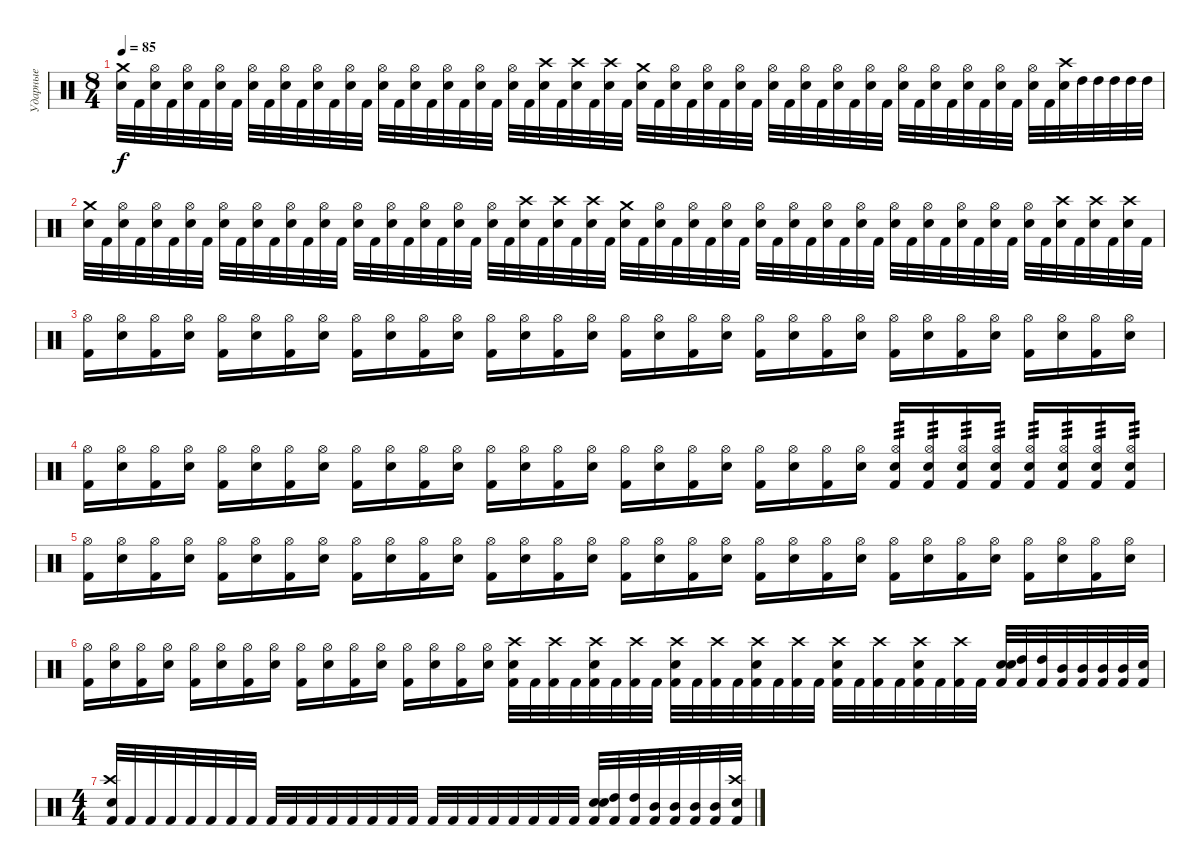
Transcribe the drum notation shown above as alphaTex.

\track ("Ударные" "Ударные") {instrument percussion}
\staff {score}
\articulation defaults
\ts (8 4)
\tempo 85
\clef neutral
\ks c
("Crash medium (hit)" "Electric Snare (hit)").32{dy f} "Kick (hit) 2".32 ("Hi-Hat (open)" "Electric Snare (hit)").32 "Kick (hit) 2".32 ("Hi-Hat (open)" "Electric Snare (hit)").32 "Kick (hit) 2".32 ("Hi-Hat (open)" "Electric Snare (hit)").32 "Kick (hit) 2".32 ("Hi-Hat (open)" "Electric Snare (hit)").32 "Kick (hit) 2".32 ("Hi-Hat (open)" "Electric Snare (hit)").32 "Kick (hit) 2".32 ("Hi-Hat (open)" "Electric Snare (hit)").32 "Kick (hit) 2".32 ("Hi-Hat (open)" "Electric Snare (hit)").32 "Kick (hit) 2".32 ("Hi-Hat (open)" "Electric Snare (hit)").32 "Kick (hit) 2".32 ("Hi-Hat (open)" "Electric Snare (hit)").32 "Kick (hit) 2".32 ("Hi-Hat (open)" "Electric Snare (hit)").32 "Kick (hit) 2".32 ("Hi-Hat (open)" "Electric Snare (hit)").32 "Kick (hit) 2".32 ("Hi-Hat (open)" "Electric Snare (hit)").32 "Kick (hit) 2".32 ("Crash high (hit)" "Electric Snare (hit)").32 "Kick (hit) 2".32 ("Crash high (hit)" "Electric Snare (hit)").32 "Kick (hit) 2".32 ("Crash high (hit)" "Electric Snare (hit)").32 "Kick (hit) 2".32 ("Crash medium (hit)" "Electric Snare (hit)").32 "Kick (hit) 2".32 ("Hi-Hat (open)" "Electric Snare (hit)").32 "Kick (hit) 2".32 ("Hi-Hat (open)" "Electric Snare (hit)").32 "Kick (hit) 2".32 ("Hi-Hat (open)" "Electric Snare (hit)").32 "Kick (hit) 2".32 ("Hi-Hat (open)" "Electric Snare (hit)").32 "Kick (hit) 2".32 ("Hi-Hat (open)" "Electric Snare (hit)").32 "Kick (hit) 2".32 ("Hi-Hat (open)" "Electric Snare (hit)").32 "Kick (hit) 2".32 ("Hi-Hat (open)" "Electric Snare (hit)").32 "Kick (hit) 2".32 ("Hi-Hat (open)" "Electric Snare (hit)").32 "Kick (hit) 2".32 ("Hi-Hat (open)" "Electric Snare (hit)").32 "Kick (hit) 2".32 ("Hi-Hat (open)" "Electric Snare (hit)").32 "Kick (hit) 2".32 ("Hi-Hat (open)" "Electric Snare (hit)").32 "Kick (hit) 2".32 ("Hi-Hat (open)" "Electric Snare (hit)").32 "Kick (hit) 2".32 ("Crash high (hit)" "Electric Snare (hit)").32 "High Tom (hit)".32 "High Tom (hit)".32 "High Tom (hit)".32 "High Tom (hit)".32 "High Tom (hit)".32 |
("Crash medium (hit)" "Electric Snare (hit)").32 "Kick (hit) 2".32 ("Hi-Hat (open)" "Electric Snare (hit)").32 "Kick (hit) 2".32 ("Hi-Hat (open)" "Electric Snare (hit)").32 "Kick (hit) 2".32 ("Hi-Hat (open)" "Electric Snare (hit)").32 "Kick (hit) 2".32 ("Hi-Hat (open)" "Electric Snare (hit)").32 "Kick (hit) 2".32 ("Hi-Hat (open)" "Electric Snare (hit)").32 "Kick (hit) 2".32 ("Hi-Hat (open)" "Electric Snare (hit)").32 "Kick (hit) 2".32 ("Hi-Hat (open)" "Electric Snare (hit)").32 "Kick (hit) 2".32 ("Hi-Hat (open)" "Electric Snare (hit)").32 "Kick (hit) 2".32 ("Hi-Hat (open)" "Electric Snare (hit)").32 "Kick (hit) 2".32 ("Hi-Hat (open)" "Electric Snare (hit)").32 "Kick (hit) 2".32 ("Hi-Hat (open)" "Electric Snare (hit)").32 "Kick (hit) 2".32 ("Hi-Hat (open)" "Electric Snare (hit)").32 "Kick (hit) 2".32 ("Crash high (hit)" "Electric Snare (hit)").32 "Kick (hit) 2".32 ("Crash high (hit)" "Electric Snare (hit)").32 "Kick (hit) 2".32 ("Crash high (hit)" "Electric Snare (hit)").32 "Kick (hit) 2".32 ("Crash medium (hit)" "Electric Snare (hit)").32 "Kick (hit) 2".32 ("Hi-Hat (open)" "Electric Snare (hit)").32 "Kick (hit) 2".32 ("Hi-Hat (open)" "Electric Snare (hit)").32 "Kick (hit) 2".32 ("Hi-Hat (open)" "Electric Snare (hit)").32 "Kick (hit) 2".32 ("Hi-Hat (open)" "Electric Snare (hit)").32 "Kick (hit) 2".32 ("Hi-Hat (open)" "Electric Snare (hit)").32 "Kick (hit) 2".32 ("Hi-Hat (open)" "Electric Snare (hit)").32 "Kick (hit) 2".32 ("Hi-Hat (open)" "Electric Snare (hit)").32 "Kick (hit) 2".32 ("Hi-Hat (open)" "Electric Snare (hit)").32 "Kick (hit) 2".32 ("Hi-Hat (open)" "Electric Snare (hit)").32 "Kick (hit) 2".32 ("Hi-Hat (open)" "Electric Snare (hit)").32 "Kick (hit) 2".32 ("Hi-Hat (open)" "Electric Snare (hit)").32 "Kick (hit) 2".32 ("Hi-Hat (open)" "Electric Snare (hit)").32 "Kick (hit) 2".32 ("Crash high (hit)" "Electric Snare (hit)").32 "Kick (hit) 2".32 ("Crash high (hit)" "Electric Snare (hit)").32 "Kick (hit) 2".32 ("Crash high (hit)" "Electric Snare (hit)").32 "Kick (hit) 2".32 |
("Kick (hit) 2" "Hi-Hat (open)").16 ("Snare (hit) 2" "Hi-Hat (open)").16 ("Kick (hit) 2" "Hi-Hat (open)").16 ("Snare (hit) 2" "Hi-Hat (open)").16 ("Kick (hit) 2" "Hi-Hat (open)").16 ("Snare (hit) 2" "Hi-Hat (open)").16 ("Kick (hit) 2" "Hi-Hat (open)").16 ("Snare (hit) 2" "Hi-Hat (open)").16 ("Kick (hit) 2" "Hi-Hat (open)").16 ("Snare (hit) 2" "Hi-Hat (open)").16 ("Kick (hit) 2" "Hi-Hat (open)").16 ("Snare (hit) 2" "Hi-Hat (open)").16 ("Kick (hit) 2" "Hi-Hat (open)").16 ("Snare (hit) 2" "Hi-Hat (open)").16 ("Kick (hit) 2" "Hi-Hat (open)").16 ("Snare (hit) 2" "Hi-Hat (open)").16 ("Kick (hit) 2" "Hi-Hat (open)").16 ("Snare (hit) 2" "Hi-Hat (open)").16 ("Kick (hit) 2" "Hi-Hat (open)").16 ("Snare (hit) 2" "Hi-Hat (open)").16 ("Kick (hit) 2" "Hi-Hat (open)").16 ("Snare (hit) 2" "Hi-Hat (open)").16 ("Kick (hit) 2" "Hi-Hat (open)").16 ("Snare (hit) 2" "Hi-Hat (open)").16 ("Kick (hit) 2" "Hi-Hat (open)").16 ("Snare (hit) 2" "Hi-Hat (open)").16 ("Kick (hit) 2" "Hi-Hat (open)").16 ("Snare (hit) 2" "Hi-Hat (open)").16 ("Kick (hit) 2" "Hi-Hat (open)").16 ("Snare (hit) 2" "Hi-Hat (open)").16 ("Kick (hit) 2" "Hi-Hat (open)").16 ("Snare (hit) 2" "Hi-Hat (open)").16 |
("Kick (hit) 2" "Hi-Hat (open)").16 ("Snare (hit) 2" "Hi-Hat (open)").16 ("Kick (hit) 2" "Hi-Hat (open)").16 ("Snare (hit) 2" "Hi-Hat (open)").16 ("Kick (hit) 2" "Hi-Hat (open)").16 ("Snare (hit) 2" "Hi-Hat (open)").16 ("Kick (hit) 2" "Hi-Hat (open)").16 ("Snare (hit) 2" "Hi-Hat (open)").16 ("Kick (hit) 2" "Hi-Hat (open)").16 ("Snare (hit) 2" "Hi-Hat (open)").16 ("Kick (hit) 2" "Hi-Hat (open)").16 ("Snare (hit) 2" "Hi-Hat (open)").16 ("Kick (hit) 2" "Hi-Hat (open)").16 ("Snare (hit) 2" "Hi-Hat (open)").16 ("Kick (hit) 2" "Hi-Hat (open)").16 ("Snare (hit) 2" "Hi-Hat (open)").16 ("Kick (hit) 2" "Hi-Hat (open)").16 ("Snare (hit) 2" "Hi-Hat (open)").16 ("Kick (hit) 2" "Hi-Hat (open)").16 ("Snare (hit) 2" "Hi-Hat (open)").16 ("Kick (hit) 2" "Hi-Hat (open)").16 ("Snare (hit) 2" "Hi-Hat (open)").16 ("Kick (hit) 2" "Hi-Hat (open)").16 ("Snare (hit) 2" "Hi-Hat (open)").16 ("Hi-Hat (open)" "Snare (hit) 2" "Kick (hit) 2").16{tp 3} ("Hi-Hat (open)" "Snare (hit) 2" "Kick (hit) 2").16{tp 3} ("Hi-Hat (open)" "Snare (hit) 2" "Kick (hit) 2").16{tp 3} ("Hi-Hat (open)" "Snare (hit) 2" "Kick (hit) 2").16{tp 3} ("Hi-Hat (open)" "Snare (hit) 2" "Kick (hit) 2").16{tp 3} ("Hi-Hat (open)" "Snare (hit) 2" "Kick (hit) 2").16{tp 3} ("Hi-Hat (open)" "Snare (hit) 2" "Kick (hit) 2").16{tp 3} ("Hi-Hat (open)" "Snare (hit) 2" "Kick (hit) 2").16{tp 3} |
("Kick (hit) 2" "Hi-Hat (open)").16 ("Snare (hit) 2" "Hi-Hat (open)").16 ("Kick (hit) 2" "Hi-Hat (open)").16 ("Snare (hit) 2" "Hi-Hat (open)").16 ("Kick (hit) 2" "Hi-Hat (open)").16 ("Snare (hit) 2" "Hi-Hat (open)").16 ("Kick (hit) 2" "Hi-Hat (open)").16 ("Snare (hit) 2" "Hi-Hat (open)").16 ("Kick (hit) 2" "Hi-Hat (open)").16 ("Snare (hit) 2" "Hi-Hat (open)").16 ("Kick (hit) 2" "Hi-Hat (open)").16 ("Snare (hit) 2" "Hi-Hat (open)").16 ("Kick (hit) 2" "Hi-Hat (open)").16 ("Snare (hit) 2" "Hi-Hat (open)").16 ("Kick (hit) 2" "Hi-Hat (open)").16 ("Snare (hit) 2" "Hi-Hat (open)").16 ("Kick (hit) 2" "Hi-Hat (open)").16 ("Snare (hit) 2" "Hi-Hat (open)").16 ("Kick (hit) 2" "Hi-Hat (open)").16 ("Snare (hit) 2" "Hi-Hat (open)").16 ("Kick (hit) 2" "Hi-Hat (open)").16 ("Snare (hit) 2" "Hi-Hat (open)").16 ("Kick (hit) 2" "Hi-Hat (open)").16 ("Snare (hit) 2" "Hi-Hat (open)").16 ("Kick (hit) 2" "Hi-Hat (open)").16 ("Snare (hit) 2" "Hi-Hat (open)").16 ("Kick (hit) 2" "Hi-Hat (open)").16 ("Snare (hit) 2" "Hi-Hat (open)").16 ("Kick (hit) 2" "Hi-Hat (open)").16 ("Snare (hit) 2" "Hi-Hat (open)").16 ("Kick (hit) 2" "Hi-Hat (open)").16 ("Snare (hit) 2" "Hi-Hat (open)").16 |
("Kick (hit) 2" "Hi-Hat (open)").16 ("Snare (hit) 2" "Hi-Hat (open)").16 ("Kick (hit) 2" "Hi-Hat (open)").16 ("Snare (hit) 2" "Hi-Hat (open)").16 ("Kick (hit) 2" "Hi-Hat (open)").16 ("Snare (hit) 2" "Hi-Hat (open)").16 ("Kick (hit) 2" "Hi-Hat (open)").16 ("Snare (hit) 2" "Hi-Hat (open)").16 ("Kick (hit) 2" "Hi-Hat (open)").16 ("Snare (hit) 2" "Hi-Hat (open)").16 ("Kick (hit) 2" "Hi-Hat (open)").16 ("Snare (hit) 2" "Hi-Hat (open)").16 ("Kick (hit) 2" "Hi-Hat (open)").16 ("Snare (hit) 2" "Hi-Hat (open)").16 ("Kick (hit) 2" "Hi-Hat (open)").16 ("Snare (hit) 2" "Hi-Hat (open)").16 ("Kick (hit) 2" "Snare (hit) 2" "Crash high (hit)").32 "Kick (hit) 2".32 ("Kick (hit) 2" "Crash high (hit)").32 "Kick (hit) 2".32 ("Kick (hit) 2" "Snare (hit) 2" "Crash high (hit)").32 "Kick (hit) 2".32 ("Kick (hit) 2" "Crash high (hit)").32 "Kick (hit) 2".32 ("Kick (hit) 2" "Snare (hit) 2" "Crash high (hit)").32 "Kick (hit) 2".32 ("Kick (hit) 2" "Crash high (hit)").32 "Kick (hit) 2".32 ("Kick (hit) 2" "Snare (hit) 2" "Crash high (hit)").32 "Kick (hit) 2".32 ("Kick (hit) 2" "Crash high (hit)").32 "Kick (hit) 2".32 ("Kick (hit) 2" "Snare (hit) 2" "Crash high (hit)").32 "Kick (hit) 2".32 ("Kick (hit) 2" "Crash high (hit)").32 "Kick (hit) 2".32 ("Kick (hit) 2" "Snare (hit) 2" "Crash high (hit)").32 "Kick (hit) 2".32 ("Kick (hit) 2" "Crash high (hit)").32 "Kick (hit) 2".32 ("Kick (hit) 2" "Snare (hit)" "Snare (hit) 2").32 ("High Tom (hit)" "Kick (hit) 2").32 ("High Tom (hit)" "Kick (hit) 2").32 ("Mid Tom (hit)" "Kick (hit) 2").32 ("Mid Tom (hit)" "Kick (hit) 2").32 ("Mid Tom (hit)" "Kick (hit) 2").32 ("Mid Tom (hit)" "Kick (hit) 2").32 ("Snare (hit) 2" "Kick (hit) 2").32 |
\ts (4 4)
("Kick (hit) 2" "Snare (hit) 2" "Crash high (hit)").32 "Kick (hit) 2".32 "Kick (hit) 2".32 "Kick (hit) 2".32 "Kick (hit) 2".32 "Kick (hit) 2".32 "Kick (hit) 2".32 "Kick (hit) 2".32 "Kick (hit) 2".32 "Kick (hit) 2".32 "Kick (hit) 2".32 "Kick (hit) 2".32 "Kick (hit) 2".32 "Kick (hit) 2".32 "Kick (hit) 2".32 "Kick (hit) 2".32 "Kick (hit) 2".32 "Kick (hit) 2".32 "Kick (hit) 2".32 "Kick (hit) 2".32 "Kick (hit) 2".32 "Kick (hit) 2".32 "Kick (hit) 2".32 "Kick (hit) 2".32 ("Kick (hit) 2" "Snare (hit)" "Snare (hit) 2").32 ("High Tom (hit)" "Kick (hit) 2").32 ("High Tom (hit)" "Kick (hit) 2").32 ("Mid Tom (hit)" "Kick (hit) 2").32 ("Mid Tom (hit)" "Kick (hit) 2").32 ("Mid Tom (hit)" "Kick (hit) 2").32 ("Mid Tom (hit)" "Kick (hit) 2").32 ("Crash high (hit)" "Snare (hit) 2" "Kick (hit) 2").32
